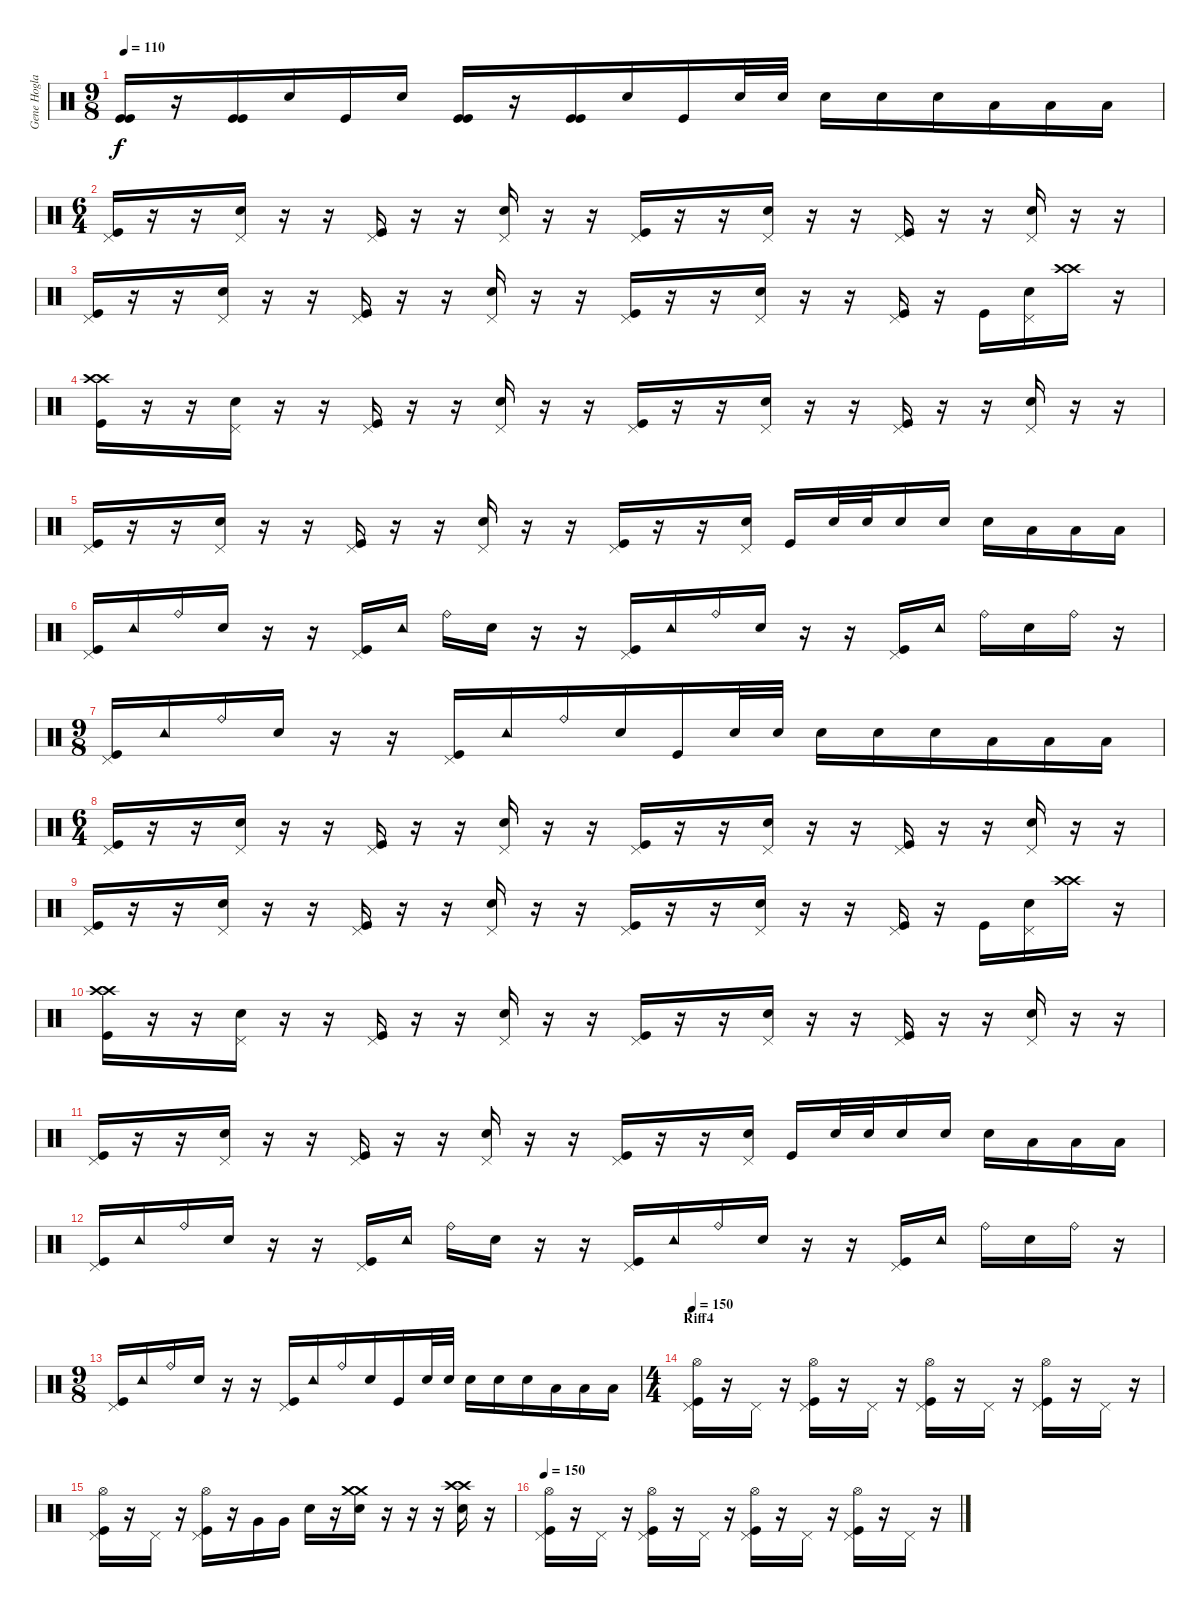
\track ("Gene Hoglan" "Gene Hogla") {instrument percussion}
\staff {score}
\articulation defaults
\ts (9 8)
\tempo 110
\clef neutral
\ks c
("Kick (hit)" "Kick (hit)").16{dy f} r.16 ("Kick (hit)" "Kick (hit)").16 "Snare (hit) 2".16 "Kick (hit)".16 "Snare (hit) 2".16 ("Kick (hit)" "Kick (hit)").16 r.16 ("Kick (hit)" "Kick (hit)").16 "Snare (hit) 2".16 "Kick (hit)".16 "Snare (hit) 2".32 "Snare (hit) 2".32 "Snare (hit) 2".16 "Snare (hit) 2".16 "Snare (hit) 2".16 "Low Tom (hit)".16 "Low Tom (hit)".16 "Low Tom (hit)".16 |
\ts (6 4)
("Pedal Hi-Hat (hit)" "Kick (hit)").16 r.16 r.16 ("Pedal Hi-Hat (hit)" "Snare (hit) 2").16 r.16 r.16 ("Pedal Hi-Hat (hit)" "Kick (hit)").16 r.16 r.16 ("Pedal Hi-Hat (hit)" "Snare (hit) 2").16 r.16 r.16 ("Pedal Hi-Hat (hit)" "Kick (hit)").16 r.16 r.16 ("Pedal Hi-Hat (hit)" "Snare (hit) 2").16 r.16 r.16 ("Pedal Hi-Hat (hit)" "Kick (hit)").16 r.16 r.16 ("Pedal Hi-Hat (hit)" "Snare (hit) 2").16 r.16 r.16 |
("Pedal Hi-Hat (hit)" "Kick (hit)").16 r.16 r.16 ("Pedal Hi-Hat (hit)" "Snare (hit) 2").16 r.16 r.16 ("Pedal Hi-Hat (hit)" "Kick (hit)").16 r.16 r.16 ("Pedal Hi-Hat (hit)" "Snare (hit) 2").16 r.16 r.16 ("Pedal Hi-Hat (hit)" "Kick (hit)").16 r.16 r.16 ("Pedal Hi-Hat (hit)" "Snare (hit) 2").16 r.16 r.16 ("Pedal Hi-Hat (hit)" "Kick (hit)").16 r.16 "Kick (hit)".16 ("Pedal Hi-Hat (hit)" "Snare (hit) 2").16 ("Crash high (hit)" "Crash high (hit)").16 r.16 |
("Crash high (hit)" "Crash high (hit)" "Kick (hit)").16 r.16 r.16 ("Pedal Hi-Hat (hit)" "Snare (hit) 2").16 r.16 r.16 ("Pedal Hi-Hat (hit)" "Kick (hit)").16 r.16 r.16 ("Pedal Hi-Hat (hit)" "Snare (hit) 2").16 r.16 r.16 ("Pedal Hi-Hat (hit)" "Kick (hit)").16 r.16 r.16 ("Pedal Hi-Hat (hit)" "Snare (hit) 2").16 r.16 r.16 ("Pedal Hi-Hat (hit)" "Kick (hit)").16 r.16 r.16 ("Pedal Hi-Hat (hit)" "Snare (hit) 2").16 r.16 r.16 |
("Pedal Hi-Hat (hit)" "Kick (hit)").16 r.16 r.16 ("Pedal Hi-Hat (hit)" "Snare (hit) 2").16 r.16 r.16 ("Pedal Hi-Hat (hit)" "Kick (hit)").16 r.16 r.16 ("Pedal Hi-Hat (hit)" "Snare (hit) 2").16 r.16 r.16 ("Pedal Hi-Hat (hit)" "Kick (hit)").16 r.16 r.16 ("Pedal Hi-Hat (hit)" "Snare (hit) 2").16 "Kick (hit)".16 "Snare (hit) 2".32 "Snare (hit) 2".32 "Snare (hit) 2".16 "Snare (hit) 2".16 "Snare (hit) 2".16 "Low Tom (hit)".16 "Low Tom (hit)".16 "Low Tom (hit)".16 |
("Pedal Hi-Hat (hit)" "Kick (hit)").16 "Tambourine (hit)".16 "Ride (bell)".16 "Snare (hit) 2".16 r.16 r.16 ("Pedal Hi-Hat (hit)" "Kick (hit)").16 "Tambourine (hit)".16 "Ride (bell)".16 "Snare (hit) 2".16 r.16 r.16 ("Pedal Hi-Hat (hit)" "Kick (hit)").16 "Tambourine (hit)".16 "Ride (bell)".16 "Snare (hit) 2".16 r.16 r.16 ("Pedal Hi-Hat (hit)" "Kick (hit)").16 "Tambourine (hit)".16 "Ride (bell)".16 "Snare (hit) 2".16 "Ride (bell)".16 r.16 |
\ts (9 8)
("Pedal Hi-Hat (hit)" "Kick (hit)").16 "Tambourine (hit)".16 "Ride (bell)".16 "Snare (hit) 2".16 r.16 r.16 ("Pedal Hi-Hat (hit)" "Kick (hit)").16 "Tambourine (hit)".16 "Ride (bell)".16 "Snare (hit) 2".16 "Kick (hit)".16 "Snare (hit) 2".32 "Snare (hit) 2".32 "Snare (hit) 2".16 "Snare (hit) 2".16 "Snare (hit) 2".16 "Low Tom (hit)".16 "Low Tom (hit)".16 "Low Tom (hit)".16 |
\ts (6 4)
("Pedal Hi-Hat (hit)" "Kick (hit)").16 r.16 r.16 ("Pedal Hi-Hat (hit)" "Snare (hit) 2").16 r.16 r.16 ("Pedal Hi-Hat (hit)" "Kick (hit)").16 r.16 r.16 ("Pedal Hi-Hat (hit)" "Snare (hit) 2").16 r.16 r.16 ("Pedal Hi-Hat (hit)" "Kick (hit)").16 r.16 r.16 ("Pedal Hi-Hat (hit)" "Snare (hit) 2").16 r.16 r.16 ("Pedal Hi-Hat (hit)" "Kick (hit)").16 r.16 r.16 ("Pedal Hi-Hat (hit)" "Snare (hit) 2").16 r.16 r.16 |
("Pedal Hi-Hat (hit)" "Kick (hit)").16 r.16 r.16 ("Pedal Hi-Hat (hit)" "Snare (hit) 2").16 r.16 r.16 ("Pedal Hi-Hat (hit)" "Kick (hit)").16 r.16 r.16 ("Pedal Hi-Hat (hit)" "Snare (hit) 2").16 r.16 r.16 ("Pedal Hi-Hat (hit)" "Kick (hit)").16 r.16 r.16 ("Pedal Hi-Hat (hit)" "Snare (hit) 2").16 r.16 r.16 ("Pedal Hi-Hat (hit)" "Kick (hit)").16 r.16 "Kick (hit)".16 ("Pedal Hi-Hat (hit)" "Snare (hit) 2").16 ("Crash high (hit)" "Crash high (hit)").16 r.16 |
("Crash high (hit)" "Crash high (hit)" "Kick (hit)").16 r.16 r.16 ("Pedal Hi-Hat (hit)" "Snare (hit) 2").16 r.16 r.16 ("Pedal Hi-Hat (hit)" "Kick (hit)").16 r.16 r.16 ("Pedal Hi-Hat (hit)" "Snare (hit) 2").16 r.16 r.16 ("Pedal Hi-Hat (hit)" "Kick (hit)").16 r.16 r.16 ("Pedal Hi-Hat (hit)" "Snare (hit) 2").16 r.16 r.16 ("Pedal Hi-Hat (hit)" "Kick (hit)").16 r.16 r.16 ("Pedal Hi-Hat (hit)" "Snare (hit) 2").16 r.16 r.16 |
("Pedal Hi-Hat (hit)" "Kick (hit)").16 r.16 r.16 ("Pedal Hi-Hat (hit)" "Snare (hit) 2").16 r.16 r.16 ("Pedal Hi-Hat (hit)" "Kick (hit)").16 r.16 r.16 ("Pedal Hi-Hat (hit)" "Snare (hit) 2").16 r.16 r.16 ("Pedal Hi-Hat (hit)" "Kick (hit)").16 r.16 r.16 ("Pedal Hi-Hat (hit)" "Snare (hit) 2").16 "Kick (hit)".16 "Snare (hit) 2".32 "Snare (hit) 2".32 "Snare (hit) 2".16 "Snare (hit) 2".16 "Snare (hit) 2".16 "Low Tom (hit)".16 "Low Tom (hit)".16 "Low Tom (hit)".16 |
("Pedal Hi-Hat (hit)" "Kick (hit)").16 "Tambourine (hit)".16 "Ride (bell)".16 "Snare (hit) 2".16 r.16 r.16 ("Pedal Hi-Hat (hit)" "Kick (hit)").16 "Tambourine (hit)".16 "Ride (bell)".16 "Snare (hit) 2".16 r.16 r.16 ("Pedal Hi-Hat (hit)" "Kick (hit)").16 "Tambourine (hit)".16 "Ride (bell)".16 "Snare (hit) 2".16 r.16 r.16 ("Pedal Hi-Hat (hit)" "Kick (hit)").16 "Tambourine (hit)".16 "Ride (bell)".16 "Snare (hit) 2".16 "Ride (bell)".16 r.16 |
\ts (9 8)
("Pedal Hi-Hat (hit)" "Kick (hit)").16 "Tambourine (hit)".16 "Ride (bell)".16 "Snare (hit) 2".16 r.16 r.16 ("Pedal Hi-Hat (hit)" "Kick (hit)").16 "Tambourine (hit)".16 "Ride (bell)".16 "Snare (hit) 2".16 "Kick (hit)".16 "Snare (hit) 2".32 "Snare (hit) 2".32 "Snare (hit) 2".16 "Snare (hit) 2".16 "Snare (hit) 2".16 "Low Tom (hit)".16 "Low Tom (hit)".16 "Low Tom (hit)".16 |
\ts (4 4)
\section ("" "Riff4")
\tempo 150
("Hi-Hat (open)" "Pedal Hi-Hat (hit)" "Kick (hit)").16 r.16 "Pedal Hi-Hat (hit)".16 r.16 ("Hi-Hat (open)" "Pedal Hi-Hat (hit)" "Kick (hit)").16 r.16 "Pedal Hi-Hat (hit)".16 r.16 ("Hi-Hat (open)" "Pedal Hi-Hat (hit)" "Kick (hit)").16 r.16 "Pedal Hi-Hat (hit)".16 r.16 ("Hi-Hat (open)" "Pedal Hi-Hat (hit)" "Kick (hit)").16 r.16 "Pedal Hi-Hat (hit)".16 r.16 |
("Hi-Hat (open)" "Pedal Hi-Hat (hit)" "Kick (hit)").16 r.16 "Pedal Hi-Hat (hit)".16 r.16 ("Hi-Hat (open)" "Pedal Hi-Hat (hit)" "Kick (hit)").16 r.16 "Very Low Tom (hit)".16 "Very Low Tom (hit)".16 "Snare (hit) 2".16 r.16 ("Crash medium (hit)" "Crash medium (hit)" "Snare (hit) 2").16 r.16 r.16 r.16 ("Crash high (hit)" "Crash high (hit)" "Snare (hit) 2").16 r.16 |
\tempo 150
("Hi-Hat (open)" "Pedal Hi-Hat (hit)" "Kick (hit)").16 r.16 "Pedal Hi-Hat (hit)".16 r.16 ("Hi-Hat (open)" "Pedal Hi-Hat (hit)" "Kick (hit)").16 r.16 "Pedal Hi-Hat (hit)".16 r.16 ("Hi-Hat (open)" "Pedal Hi-Hat (hit)" "Kick (hit)").16 r.16 "Pedal Hi-Hat (hit)".16 r.16 ("Hi-Hat (open)" "Pedal Hi-Hat (hit)" "Kick (hit)").16 r.16 "Pedal Hi-Hat (hit)".16 r.16
